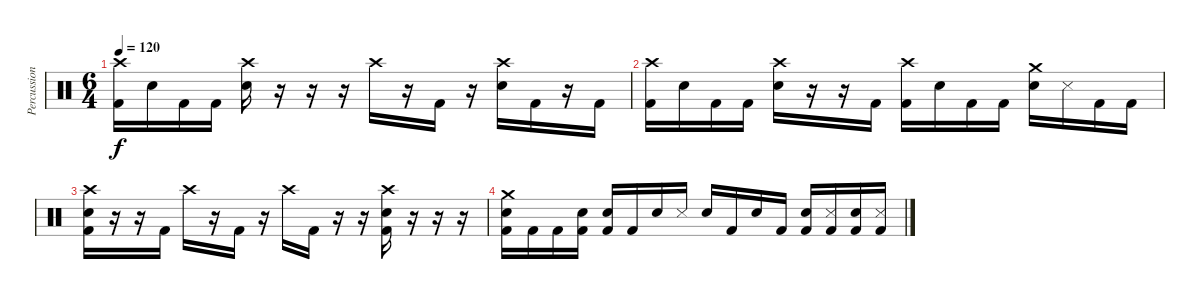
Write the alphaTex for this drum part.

\track ("Percussion" "Percussion") {instrument percussion}
\staff {score}
\articulation defaults
\ts (6 4)
\tempo 120
\clef neutral
\ks c
("Crash high (hit)" "Kick (hit) 2").16{dy f} "Snare (hit) 2".16 "Kick (hit) 2".16 "Kick (hit) 2".16 ("Crash high (hit)" "Snare (hit) 2").16 r.16 r.16 r.16 "Crash high (hit)".16 r.16 "Kick (hit) 2".16 r.16 ("Crash high (hit)" "Snare (hit) 2").16 "Kick (hit) 2".16 r.16 "Kick (hit) 2".16 |
("Crash high (hit)" "Kick (hit) 2").16 "Snare (hit) 2".16 "Kick (hit) 2".16 "Kick (hit) 2".16 ("Crash high (hit)" "Snare (hit) 2").16 r.16 r.16 "Kick (hit) 2".16 ("Crash high (hit)" "Kick (hit) 2").16 "Snare (hit) 2".16 "Kick (hit) 2".16 "Kick (hit) 2".16 ("Crash medium (hit)" "Snare (hit) 2").16 "Metronome (hit)".16 "Kick (hit) 2".16 "Kick (hit) 2".16 |
("Crash high (hit)" "Snare (hit) 2" "Kick (hit) 2").16 r.16 r.16 "Kick (hit) 2".16 "Crash high (hit)".16 r.16 "Kick (hit) 2".16 r.16 "Crash high (hit)".16 "Kick (hit) 2".16 r.16 r.16 ("Crash high (hit)" "Snare (hit) 2" "Kick (hit) 2").16 r.16 r.16 r.16 |
("Crash medium (hit)" "Snare (hit) 2" "Kick (hit) 2").16 "Kick (hit) 2".16 "Kick (hit) 2".16 ("Snare (hit) 2" "Kick (hit) 2").16 ("Snare (hit)" "Kick (hit) 2").16 "Kick (hit) 2".16 "Snare (hit) 2".16 "Metronome (hit)".16 "Snare (hit) 2".16 "Kick (hit) 2".16 "Snare (hit) 2".16 "Kick (hit) 2".16 ("Snare (hit) 2" "Kick (hit) 2").16 ("Metronome (hit)" "Kick (hit) 2").16 ("Snare (hit) 2" "Kick (hit) 2").16 ("Metronome (hit)" "Kick (hit) 2").16
